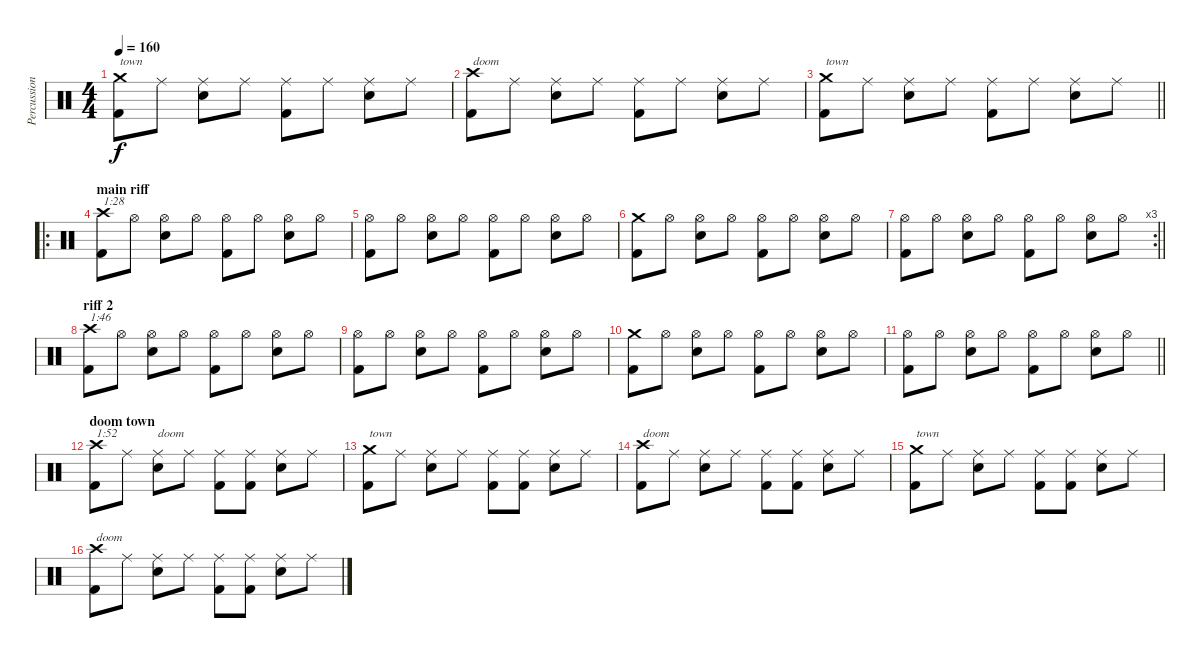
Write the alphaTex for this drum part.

\track ("Percussion 2 var" "Percussion") {mute instrument percussion}
\staff {score}
\articulation defaults
\ts (4 4)
\tempo 160
\clef neutral
\ks c
("Crash medium (hit)" "Kick (hit) 2").8{txt "town" dy f} "Ride (middle)".8 ("Ride (middle)" "Snare (hit) 2").8 "Ride (middle)".8 ("Ride (middle)" "Kick (hit) 2").8 "Ride (middle)".8 ("Ride (middle)" "Snare (hit) 2").8 "Ride (middle)".8 |
("Crash high (hit)" "Kick (hit) 2").8{txt "doom"} "Ride (middle)".8 ("Ride (middle)" "Snare (hit) 2").8 "Ride (middle)".8 ("Ride (middle)" "Kick (hit) 2").8 "Ride (middle)".8 ("Ride (middle)" "Snare (hit) 2").8 "Ride (middle)".8 |
\barLineRight lightlight
("Crash medium (hit)" "Kick (hit) 2").8{txt "town"} "Ride (middle)".8 ("Ride (middle)" "Snare (hit) 2").8 "Ride (middle)".8 ("Ride (middle)" "Kick (hit) 2").8 "Ride (middle)".8 ("Ride (middle)" "Snare (hit) 2").8 "Ride (middle)".8 |
\ro
\section ("" "main riff")
("Crash high (hit)" "Kick (hit) 2").8{txt "1:28"} "Hi-Hat (open)".8 ("Hi-Hat (open)" "Snare (hit) 2").8 "Hi-Hat (open)".8 ("Hi-Hat (open)" "Kick (hit) 2").8 "Hi-Hat (open)".8 ("Hi-Hat (open)" "Snare (hit) 2").8 "Hi-Hat (open)".8 |
("Hi-Hat (open)" "Kick (hit) 2").8 "Hi-Hat (open)".8 ("Hi-Hat (open)" "Snare (hit) 2").8 "Hi-Hat (open)".8 ("Hi-Hat (open)" "Kick (hit) 2").8 "Hi-Hat (open)".8 ("Hi-Hat (open)" "Snare (hit) 2").8 "Hi-Hat (open)".8 |
("Crash medium (hit)" "Kick (hit) 2").8 "Hi-Hat (open)".8 ("Hi-Hat (open)" "Snare (hit) 2").8 "Hi-Hat (open)".8 ("Hi-Hat (open)" "Kick (hit) 2").8 "Hi-Hat (open)".8 ("Hi-Hat (open)" "Snare (hit) 2").8 "Hi-Hat (open)".8 |
\rc 3
\barLineRight lightlight
("Hi-Hat (open)" "Kick (hit) 2").8 "Hi-Hat (open)".8 ("Hi-Hat (open)" "Snare (hit) 2").8 "Hi-Hat (open)".8 ("Hi-Hat (open)" "Kick (hit) 2").8 "Hi-Hat (open)".8 ("Hi-Hat (open)" "Snare (hit) 2").8 "Hi-Hat (open)".8 |
\section ("" "riff 2")
("Crash high (hit)" "Kick (hit) 2").8{txt "1:46"} "Hi-Hat (open)".8 ("Hi-Hat (open)" "Snare (hit) 2").8 "Hi-Hat (open)".8 ("Hi-Hat (open)" "Kick (hit) 2").8 "Hi-Hat (open)".8 ("Hi-Hat (open)" "Snare (hit) 2").8 "Hi-Hat (open)".8 |
("Hi-Hat (open)" "Kick (hit) 2").8 "Hi-Hat (open)".8 ("Hi-Hat (open)" "Snare (hit) 2").8 "Hi-Hat (open)".8 ("Hi-Hat (open)" "Kick (hit) 2").8 "Hi-Hat (open)".8 ("Hi-Hat (open)" "Snare (hit) 2").8 "Hi-Hat (open)".8 |
("Crash medium (hit)" "Kick (hit) 2").8 "Hi-Hat (open)".8 ("Hi-Hat (open)" "Snare (hit) 2").8 "Hi-Hat (open)".8 ("Hi-Hat (open)" "Kick (hit) 2").8 "Hi-Hat (open)".8 ("Hi-Hat (open)" "Snare (hit) 2").8 "Hi-Hat (open)".8 |
\barLineRight lightlight
("Hi-Hat (open)" "Kick (hit) 2").8 "Hi-Hat (open)".8 ("Hi-Hat (open)" "Snare (hit) 2").8 "Hi-Hat (open)".8 ("Hi-Hat (open)" "Kick (hit) 2").8 "Hi-Hat (open)".8 ("Hi-Hat (open)" "Snare (hit) 2").8 "Hi-Hat (open)".8 |
\section ("" "doom town")
("Crash high (hit)" "Kick (hit) 2").8{txt "1:52"} "Ride (middle)".8 ("Ride (middle)" "Snare (hit) 2").8{txt "doom"} "Ride (middle)".8 ("Ride (middle)" "Kick (hit) 2").8 ("Ride (middle)" "Kick (hit) 2").8 ("Ride (middle)" "Snare (hit) 2").8 "Ride (middle)".8 |
("Crash medium (hit)" "Kick (hit) 2").8{txt "town"} "Ride (middle)".8 ("Ride (middle)" "Snare (hit) 2").8 "Ride (middle)".8 ("Ride (middle)" "Kick (hit) 2").8 ("Ride (middle)" "Kick (hit) 2").8 ("Ride (middle)" "Snare (hit) 2").8 "Ride (middle)".8 |
("Crash high (hit)" "Kick (hit) 2").8{txt "doom"} "Ride (middle)".8 ("Ride (middle)" "Snare (hit) 2").8 "Ride (middle)".8 ("Ride (middle)" "Kick (hit) 2").8 ("Ride (middle)" "Kick (hit) 2").8 ("Ride (middle)" "Snare (hit) 2").8 "Ride (middle)".8 |
("Crash medium (hit)" "Kick (hit) 2").8{txt "town"} "Ride (middle)".8 ("Ride (middle)" "Snare (hit) 2").8 "Ride (middle)".8 ("Ride (middle)" "Kick (hit) 2").8 ("Ride (middle)" "Kick (hit) 2").8 ("Ride (middle)" "Snare (hit) 2").8 "Ride (middle)".8 |
("Crash high (hit)" "Kick (hit) 2").8{txt "doom"} "Ride (middle)".8 ("Ride (middle)" "Snare (hit) 2").8 "Ride (middle)".8 ("Ride (middle)" "Kick (hit) 2").8 ("Ride (middle)" "Kick (hit) 2").8 ("Ride (middle)" "Snare (hit) 2").8 "Ride (middle)".8
